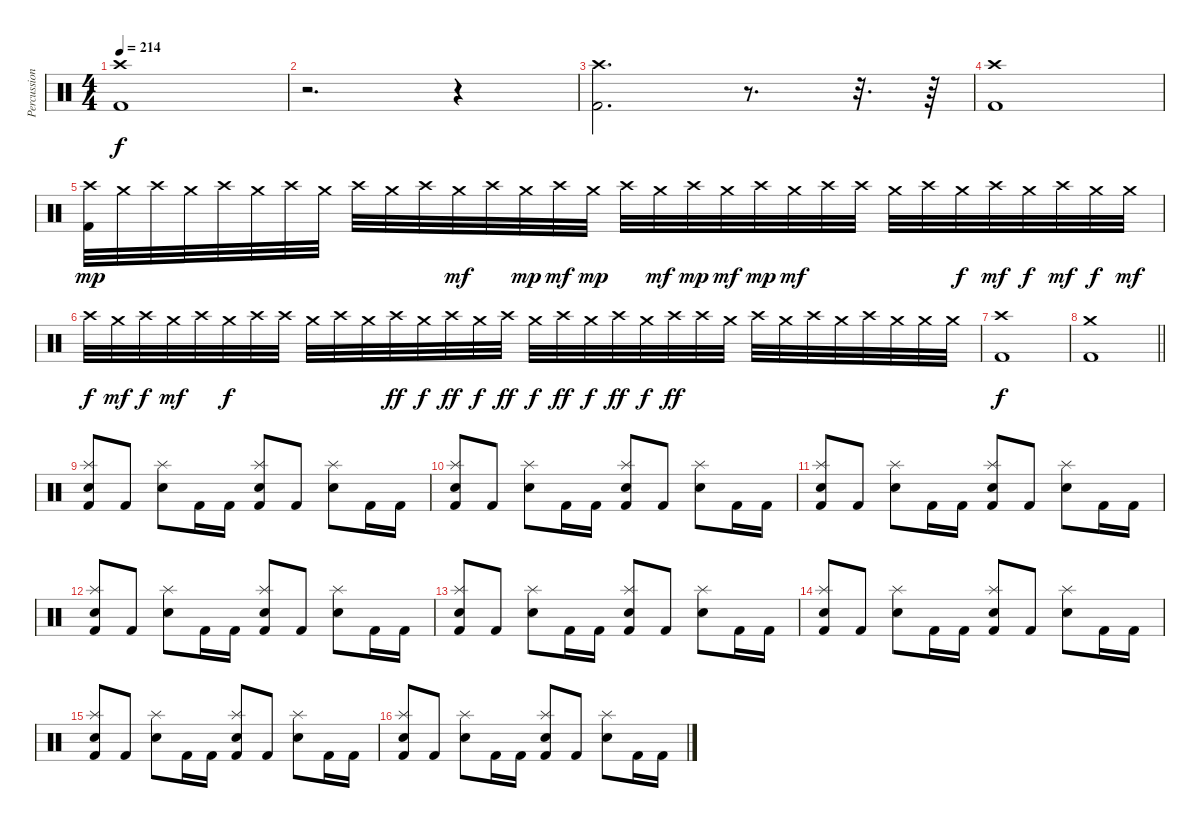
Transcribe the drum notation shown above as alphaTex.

\track ("Percussion" "Percussion") {instrument percussion}
\staff {score}
\articulation defaults
\ts (4 4)
\section ("" "")
\tempo 214
\clef neutral
\ks c
("Crash high (hit)" "Kick (hit) 2").1{dy f volume 0} |
r.2{d} r.4{volume 13} |
("Crash high (hit)" "Kick (hit) 2").2{d volume 0} r.8{d} r.32{d} r.64{volume 13} |
("Crash high (hit)" "Kick (hit) 2").1{volume 0} |
("Crash high (hit)" "Kick (hit) 2").32{dy mp volume 13} "Crash medium (hit)".32 "Crash high (hit)".32 "Crash medium (hit)".32 "Crash high (hit)".32 "Crash medium (hit)".32 "Crash high (hit)".32 "Crash medium (hit)".32 "Crash high (hit)".32 "Crash medium (hit)".32 "Crash high (hit)".32 "Crash medium (hit)".32{dy mf} "Crash high (hit)".32 "Crash medium (hit)".32{dy mp} "Crash high (hit)".32{dy mf} "Crash medium (hit)".32{dy mp} "Crash high (hit)".32 "Crash medium (hit)".32{dy mf} "Crash high (hit)".32{dy mp} "Crash medium (hit)".32{dy mf} "Crash high (hit)".32{dy mp} "Crash medium (hit)".32{dy mf} "Crash high (hit)".32 "Crash high (hit)".32 "Crash medium (hit)".32 "Crash high (hit)".32 "Crash medium (hit)".32{dy f} "Crash high (hit)".32{dy mf} "Crash medium (hit)".32{dy f} "Crash high (hit)".32{dy mf} "Crash medium (hit)".32{dy f} "Crash medium (hit)".32{dy mf} |
"Crash high (hit)".32{dy f} "Crash medium (hit)".32{dy mf} "Crash high (hit)".32{dy f} "Crash medium (hit)".32{dy mf} "Crash high (hit)".32 "Crash medium (hit)".32{dy f} "Crash high (hit)".32 "Crash high (hit)".32 "Crash medium (hit)".32 "Crash high (hit)".32 "Crash medium (hit)".32 "Crash high (hit)".32{dy ff} "Crash medium (hit)".32{dy f} "Crash high (hit)".32{dy ff} "Crash medium (hit)".32{dy f} "Crash high (hit)".32{dy ff} "Crash medium (hit)".32{dy f} "Crash high (hit)".32{dy ff} "Crash medium (hit)".32{dy f} "Crash high (hit)".32{dy ff} "Crash medium (hit)".32{dy f} "Crash high (hit)".32{dy ff} "Crash high (hit)".32 "Crash medium (hit)".32 "Crash high (hit)".32 "Crash medium (hit)".32 "Crash high (hit)".32 "Crash medium (hit)".32 "Crash high (hit)".32 "Crash medium (hit)".32 "Crash medium (hit)".32 "Crash medium (hit)".32 |
("Crash high (hit)" "Kick (hit) 2").1{dy f} |
\barLineRight lightlight
("Crash medium (hit)" "Kick (hit) 2").1 |
\section ("" "")
("Splash (hit)" "Electric Snare (hit)" "Kick (hit) 2").8 "Kick (hit) 2".8 ("Splash (hit)" "Electric Snare (hit)").8 "Kick (hit) 2".16 "Kick (hit) 2".16 ("Splash (hit)" "Electric Snare (hit)" "Kick (hit) 2").8 "Kick (hit) 2".8 ("Splash (hit)" "Electric Snare (hit)").8 "Kick (hit) 2".16 "Kick (hit) 2".16 |
("Splash (hit)" "Electric Snare (hit)" "Kick (hit) 2").8 "Kick (hit) 2".8 ("Splash (hit)" "Electric Snare (hit)").8 "Kick (hit) 2".16 "Kick (hit) 2".16 ("Splash (hit)" "Electric Snare (hit)" "Kick (hit) 2").8 "Kick (hit) 2".8 ("Splash (hit)" "Electric Snare (hit)").8 "Kick (hit) 2".16 "Kick (hit) 2".16 |
("Splash (hit)" "Electric Snare (hit)" "Kick (hit) 2").8 "Kick (hit) 2".8 ("Splash (hit)" "Electric Snare (hit)").8 "Kick (hit) 2".16 "Kick (hit) 2".16 ("Splash (hit)" "Electric Snare (hit)" "Kick (hit) 2").8 "Kick (hit) 2".8 ("Splash (hit)" "Electric Snare (hit)").8 "Kick (hit) 2".16 "Kick (hit) 2".16 |
("Splash (hit)" "Electric Snare (hit)" "Kick (hit) 2").8 "Kick (hit) 2".8 ("Splash (hit)" "Electric Snare (hit)").8 "Kick (hit) 2".16 "Kick (hit) 2".16 ("Splash (hit)" "Electric Snare (hit)" "Kick (hit) 2").8 "Kick (hit) 2".8 ("Splash (hit)" "Electric Snare (hit)").8 "Kick (hit) 2".16 "Kick (hit) 2".16 |
("Splash (hit)" "Electric Snare (hit)" "Kick (hit) 2").8 "Kick (hit) 2".8 ("Splash (hit)" "Electric Snare (hit)").8 "Kick (hit) 2".16 "Kick (hit) 2".16 ("Splash (hit)" "Electric Snare (hit)" "Kick (hit) 2").8 "Kick (hit) 2".8 ("Splash (hit)" "Electric Snare (hit)").8 "Kick (hit) 2".16 "Kick (hit) 2".16 |
("Splash (hit)" "Electric Snare (hit)" "Kick (hit) 2").8 "Kick (hit) 2".8 ("Splash (hit)" "Electric Snare (hit)").8 "Kick (hit) 2".16 "Kick (hit) 2".16 ("Splash (hit)" "Electric Snare (hit)" "Kick (hit) 2").8 "Kick (hit) 2".8 ("Splash (hit)" "Electric Snare (hit)").8 "Kick (hit) 2".16 "Kick (hit) 2".16 |
("Splash (hit)" "Electric Snare (hit)" "Kick (hit) 2").8 "Kick (hit) 2".8 ("Splash (hit)" "Electric Snare (hit)").8 "Kick (hit) 2".16 "Kick (hit) 2".16 ("Splash (hit)" "Electric Snare (hit)" "Kick (hit) 2").8 "Kick (hit) 2".8 ("Splash (hit)" "Electric Snare (hit)").8 "Kick (hit) 2".16 "Kick (hit) 2".16 |
("Splash (hit)" "Electric Snare (hit)" "Kick (hit) 2").8 "Kick (hit) 2".8 ("Splash (hit)" "Electric Snare (hit)").8 "Kick (hit) 2".16 "Kick (hit) 2".16 ("Splash (hit)" "Electric Snare (hit)" "Kick (hit) 2").8 "Kick (hit) 2".8 ("Splash (hit)" "Electric Snare (hit)").8 "Kick (hit) 2".16 "Kick (hit) 2".16
